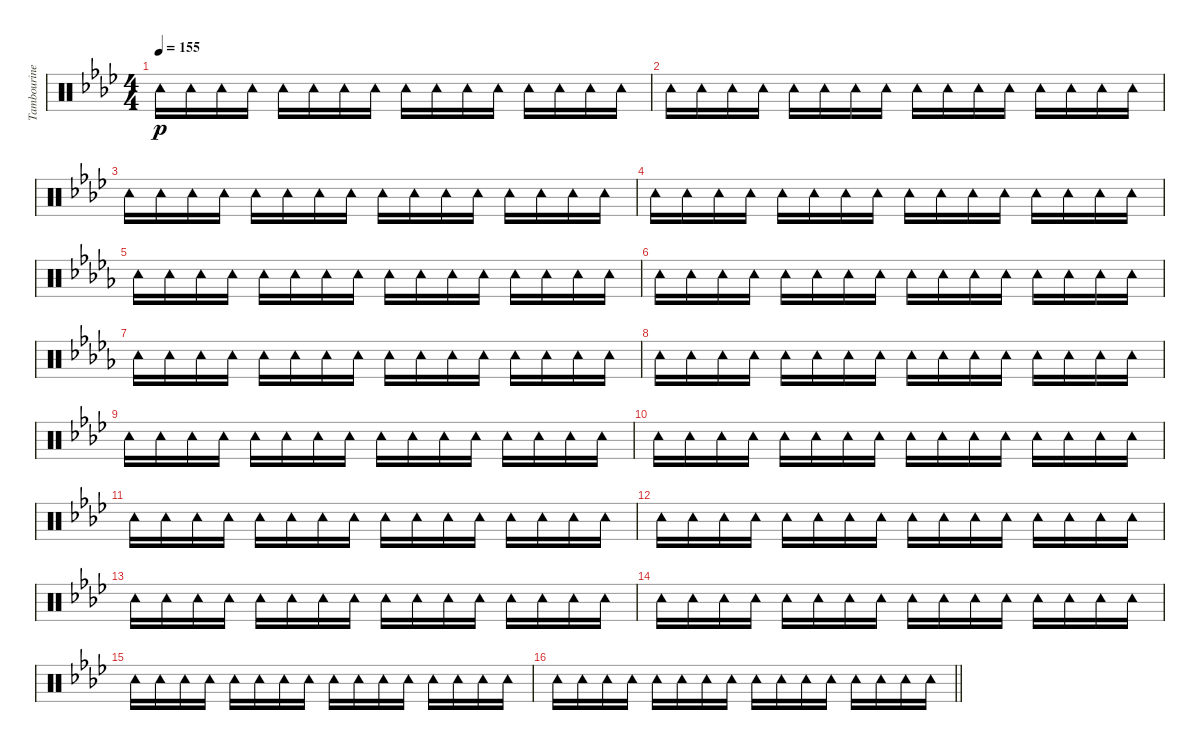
\track ("Tambourine" "Tambourine") {instrument percussion}
\staff {score}
\articulation defaults
\ts (4 4)
\tempo 155
\clef neutral
\ks ab "Tambourine (hit)".16{dy p} "Tambourine (hit)".16 "Tambourine (hit)".16 "Tambourine (hit)".16 "Tambourine (hit)".16 "Tambourine (hit)".16 "Tambourine (hit)".16 "Tambourine (hit)".16 "Tambourine (hit)".16 "Tambourine (hit)".16 "Tambourine (hit)".16 "Tambourine (hit)".16 "Tambourine (hit)".16 "Tambourine (hit)".16 "Tambourine (hit)".16 "Tambourine (hit)".16
|
"Tambourine (hit)".16 "Tambourine (hit)".16 "Tambourine (hit)".16 "Tambourine (hit)".16 "Tambourine (hit)".16 "Tambourine (hit)".16 "Tambourine (hit)".16 "Tambourine (hit)".16 "Tambourine (hit)".16 "Tambourine (hit)".16 "Tambourine (hit)".16 "Tambourine (hit)".16 "Tambourine (hit)".16 "Tambourine (hit)".16 "Tambourine (hit)".16 "Tambourine (hit)".16 |
"Tambourine (hit)".16 "Tambourine (hit)".16 "Tambourine (hit)".16 "Tambourine (hit)".16 "Tambourine (hit)".16 "Tambourine (hit)".16 "Tambourine (hit)".16 "Tambourine (hit)".16 "Tambourine (hit)".16 "Tambourine (hit)".16 "Tambourine (hit)".16 "Tambourine (hit)".16 "Tambourine (hit)".16 "Tambourine (hit)".16 "Tambourine (hit)".16 "Tambourine (hit)".16 |
"Tambourine (hit)".16 "Tambourine (hit)".16 "Tambourine (hit)".16 "Tambourine (hit)".16 "Tambourine (hit)".16 "Tambourine (hit)".16 "Tambourine (hit)".16 "Tambourine (hit)".16 "Tambourine (hit)".16 "Tambourine (hit)".16 "Tambourine (hit)".16 "Tambourine (hit)".16 "Tambourine (hit)".16 "Tambourine (hit)".16 "Tambourine (hit)".16 "Tambourine (hit)".16 |
\ks db "Tambourine (hit)".16 "Tambourine (hit)".16 "Tambourine (hit)".16 "Tambourine (hit)".16 "Tambourine (hit)".16 "Tambourine (hit)".16 "Tambourine (hit)".16 "Tambourine (hit)".16 "Tambourine (hit)".16 "Tambourine (hit)".16 "Tambourine (hit)".16 "Tambourine (hit)".16 "Tambourine (hit)".16 "Tambourine (hit)".16 "Tambourine (hit)".16 "Tambourine (hit)".16
|
"Tambourine (hit)".16 "Tambourine (hit)".16 "Tambourine (hit)".16 "Tambourine (hit)".16 "Tambourine (hit)".16 "Tambourine (hit)".16 "Tambourine (hit)".16 "Tambourine (hit)".16 "Tambourine (hit)".16 "Tambourine (hit)".16 "Tambourine (hit)".16 "Tambourine (hit)".16 "Tambourine (hit)".16 "Tambourine (hit)".16 "Tambourine (hit)".16 "Tambourine (hit)".16 |
"Tambourine (hit)".16 "Tambourine (hit)".16 "Tambourine (hit)".16 "Tambourine (hit)".16 "Tambourine (hit)".16 "Tambourine (hit)".16 "Tambourine (hit)".16 "Tambourine (hit)".16 "Tambourine (hit)".16 "Tambourine (hit)".16 "Tambourine (hit)".16 "Tambourine (hit)".16 "Tambourine (hit)".16 "Tambourine (hit)".16 "Tambourine (hit)".16 "Tambourine (hit)".16 |
"Tambourine (hit)".16 "Tambourine (hit)".16 "Tambourine (hit)".16 "Tambourine (hit)".16 "Tambourine (hit)".16 "Tambourine (hit)".16 "Tambourine (hit)".16 "Tambourine (hit)".16 "Tambourine (hit)".16 "Tambourine (hit)".16 "Tambourine (hit)".16 "Tambourine (hit)".16 "Tambourine (hit)".16 "Tambourine (hit)".16 "Tambourine (hit)".16 "Tambourine (hit)".16 |
\ks ab "Tambourine (hit)".16 "Tambourine (hit)".16 "Tambourine (hit)".16 "Tambourine (hit)".16 "Tambourine (hit)".16 "Tambourine (hit)".16 "Tambourine (hit)".16 "Tambourine (hit)".16 "Tambourine (hit)".16 "Tambourine (hit)".16 "Tambourine (hit)".16 "Tambourine (hit)".16 "Tambourine (hit)".16 "Tambourine (hit)".16 "Tambourine (hit)".16 "Tambourine (hit)".16
|
"Tambourine (hit)".16 "Tambourine (hit)".16 "Tambourine (hit)".16 "Tambourine (hit)".16 "Tambourine (hit)".16 "Tambourine (hit)".16 "Tambourine (hit)".16 "Tambourine (hit)".16 "Tambourine (hit)".16 "Tambourine (hit)".16 "Tambourine (hit)".16 "Tambourine (hit)".16 "Tambourine (hit)".16 "Tambourine (hit)".16 "Tambourine (hit)".16 "Tambourine (hit)".16 |
"Tambourine (hit)".16 "Tambourine (hit)".16 "Tambourine (hit)".16 "Tambourine (hit)".16 "Tambourine (hit)".16 "Tambourine (hit)".16 "Tambourine (hit)".16 "Tambourine (hit)".16 "Tambourine (hit)".16 "Tambourine (hit)".16 "Tambourine (hit)".16 "Tambourine (hit)".16 "Tambourine (hit)".16 "Tambourine (hit)".16 "Tambourine (hit)".16 "Tambourine (hit)".16 |
"Tambourine (hit)".16 "Tambourine (hit)".16 "Tambourine (hit)".16 "Tambourine (hit)".16 "Tambourine (hit)".16 "Tambourine (hit)".16 "Tambourine (hit)".16 "Tambourine (hit)".16 "Tambourine (hit)".16 "Tambourine (hit)".16 "Tambourine (hit)".16 "Tambourine (hit)".16 "Tambourine (hit)".16 "Tambourine (hit)".16 "Tambourine (hit)".16 "Tambourine (hit)".16 |
"Tambourine (hit)".16 "Tambourine (hit)".16 "Tambourine (hit)".16 "Tambourine (hit)".16 "Tambourine (hit)".16 "Tambourine (hit)".16 "Tambourine (hit)".16 "Tambourine (hit)".16 "Tambourine (hit)".16 "Tambourine (hit)".16 "Tambourine (hit)".16 "Tambourine (hit)".16 "Tambourine (hit)".16 "Tambourine (hit)".16 "Tambourine (hit)".16 "Tambourine (hit)".16 |
"Tambourine (hit)".16 "Tambourine (hit)".16 "Tambourine (hit)".16 "Tambourine (hit)".16 "Tambourine (hit)".16 "Tambourine (hit)".16 "Tambourine (hit)".16 "Tambourine (hit)".16 "Tambourine (hit)".16 "Tambourine (hit)".16 "Tambourine (hit)".16 "Tambourine (hit)".16 "Tambourine (hit)".16 "Tambourine (hit)".16 "Tambourine (hit)".16 "Tambourine (hit)".16 |
"Tambourine (hit)".16 "Tambourine (hit)".16 "Tambourine (hit)".16 "Tambourine (hit)".16 "Tambourine (hit)".16 "Tambourine (hit)".16 "Tambourine (hit)".16 "Tambourine (hit)".16 "Tambourine (hit)".16 "Tambourine (hit)".16 "Tambourine (hit)".16 "Tambourine (hit)".16 "Tambourine (hit)".16 "Tambourine (hit)".16 "Tambourine (hit)".16 "Tambourine (hit)".16 |
\barLineRight lightlight "Tambourine (hit)".16 "Tambourine (hit)".16 "Tambourine (hit)".16 "Tambourine (hit)".16 "Tambourine (hit)".16 "Tambourine (hit)".16 "Tambourine (hit)".16 "Tambourine (hit)".16 "Tambourine (hit)".16 "Tambourine (hit)".16 "Tambourine (hit)".16 "Tambourine (hit)".16 "Tambourine (hit)".16 "Tambourine (hit)".16 "Tambourine (hit)".16 "Tambourine (hit)".16
